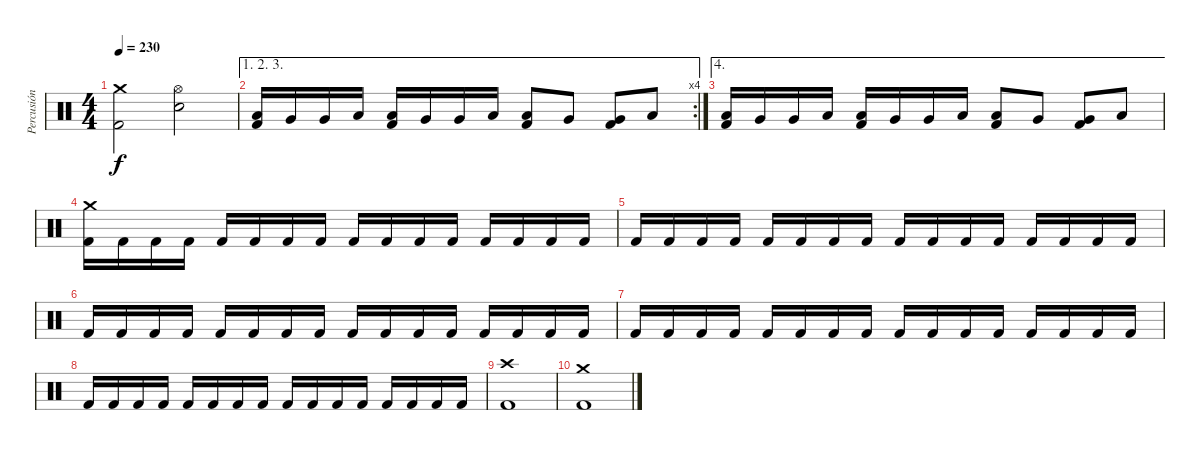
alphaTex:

\track ("Percusión" "Percusión") {instrument percussion}
\staff {score}
\articulation defaults
\ts (4 4)
\tempo 230
\clef neutral
\ks c
("Crash medium (hit)" "Kick (hit) 2").2{dy f} ("Hi-Hat (open)" "Electric Snare (hit)").2 |
\ae (1 2 3)
\rc 4
("Low Tom (hit)" "Kick (hit) 2").16 "Very Low Tom (hit)".16 "Very Low Tom (hit)".16 "Low Floor Tom (hit)".16 ("Low Tom (hit)" "Kick (hit) 2").16 "Very Low Tom (hit)".16 "Very Low Tom (hit)".16 "Low Floor Tom (hit)".16 ("Low Tom (hit)" "Kick (hit) 2").8 "Very Low Tom (hit)".8 ("Very Low Tom (hit)" "Kick (hit) 2").8 "Low Floor Tom (hit)".8 |
\ae 4
("Low Tom (hit)" "Kick (hit) 2").16 "Very Low Tom (hit)".16 "Very Low Tom (hit)".16 "Low Floor Tom (hit)".16 ("Low Tom (hit)" "Kick (hit) 2").16 "Very Low Tom (hit)".16 "Very Low Tom (hit)".16 "Low Floor Tom (hit)".16 ("Low Tom (hit)" "Kick (hit) 2").8 "Very Low Tom (hit)".8 ("Very Low Tom (hit)" "Kick (hit) 2").8 "Low Floor Tom (hit)".8 |
("Crash medium (hit)" "Kick (hit) 2").16 "Kick (hit) 2".16 "Kick (hit) 2".16 "Kick (hit) 2".16 "Kick (hit) 2".16 "Kick (hit) 2".16 "Kick (hit) 2".16 "Kick (hit) 2".16 "Kick (hit) 2".16 "Kick (hit) 2".16 "Kick (hit) 2".16 "Kick (hit) 2".16 "Kick (hit) 2".16 "Kick (hit) 2".16 "Kick (hit) 2".16 "Kick (hit) 2".16 |
"Kick (hit) 2".16 "Kick (hit) 2".16 "Kick (hit) 2".16 "Kick (hit) 2".16 "Kick (hit) 2".16 "Kick (hit) 2".16 "Kick (hit) 2".16 "Kick (hit) 2".16 "Kick (hit) 2".16 "Kick (hit) 2".16 "Kick (hit) 2".16 "Kick (hit) 2".16 "Kick (hit) 2".16 "Kick (hit) 2".16 "Kick (hit) 2".16 "Kick (hit) 2".16 |
"Kick (hit) 2".16 "Kick (hit) 2".16 "Kick (hit) 2".16 "Kick (hit) 2".16 "Kick (hit) 2".16 "Kick (hit) 2".16 "Kick (hit) 2".16 "Kick (hit) 2".16 "Kick (hit) 2".16 "Kick (hit) 2".16 "Kick (hit) 2".16 "Kick (hit) 2".16 "Kick (hit) 2".16 "Kick (hit) 2".16 "Kick (hit) 2".16 "Kick (hit) 2".16 |
"Kick (hit) 2".16 "Kick (hit) 2".16 "Kick (hit) 2".16 "Kick (hit) 2".16 "Kick (hit) 2".16 "Kick (hit) 2".16 "Kick (hit) 2".16 "Kick (hit) 2".16 "Kick (hit) 2".16 "Kick (hit) 2".16 "Kick (hit) 2".16 "Kick (hit) 2".16 "Kick (hit) 2".16 "Kick (hit) 2".16 "Kick (hit) 2".16 "Kick (hit) 2".16 |
"Kick (hit) 2".16 "Kick (hit) 2".16 "Kick (hit) 2".16 "Kick (hit) 2".16 "Kick (hit) 2".16 "Kick (hit) 2".16 "Kick (hit) 2".16 "Kick (hit) 2".16 "Kick (hit) 2".16 "Kick (hit) 2".16 "Kick (hit) 2".16 "Kick (hit) 2".16 "Kick (hit) 2".16 "Kick (hit) 2".16 "Kick (hit) 2".16 "Kick (hit) 2".16 |
("Crash high (hit)" "Kick (hit) 2").1 |
("Crash medium (hit)" "Kick (hit) 2").1
